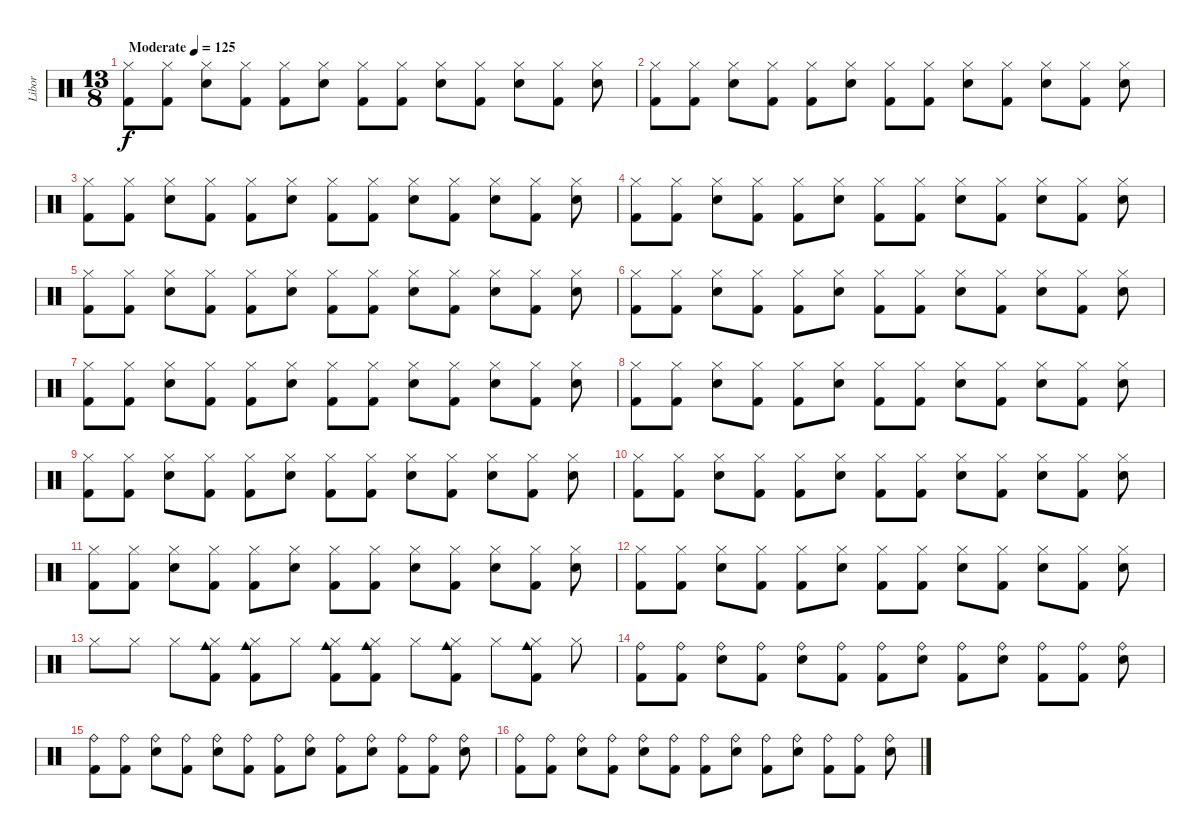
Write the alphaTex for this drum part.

\track ("Libor" "Libor") {instrument percussion}
\staff {score}
\articulation defaults
\ts (13 8)
\tempo (125 "Moderate")
\clef neutral
\ks c
("Hi-Hat (closed)" "Kick (hit) 2").8{dy f} ("Hi-Hat (closed)" "Kick (hit) 2").8 ("Hi-Hat (closed)" "Snare (hit) 2").8 ("Hi-Hat (closed)" "Kick (hit) 2").8 ("Hi-Hat (closed)" "Kick (hit) 2").8 ("Hi-Hat (closed)" "Snare (hit) 2").8 ("Hi-Hat (closed)" "Kick (hit) 2").8 ("Hi-Hat (closed)" "Kick (hit) 2").8 ("Hi-Hat (closed)" "Snare (hit) 2").8 ("Hi-Hat (closed)" "Kick (hit) 2").8 ("Hi-Hat (closed)" "Snare (hit) 2").8 ("Hi-Hat (closed)" "Kick (hit) 2").8 ("Hi-Hat (closed)" "Snare (hit) 2").8 |
("Hi-Hat (closed)" "Kick (hit) 2").8 ("Hi-Hat (closed)" "Kick (hit) 2").8 ("Hi-Hat (closed)" "Snare (hit) 2").8 ("Hi-Hat (closed)" "Kick (hit) 2").8 ("Hi-Hat (closed)" "Kick (hit) 2").8 ("Hi-Hat (closed)" "Snare (hit) 2").8 ("Hi-Hat (closed)" "Kick (hit) 2").8 ("Hi-Hat (closed)" "Kick (hit) 2").8 ("Hi-Hat (closed)" "Snare (hit) 2").8 ("Hi-Hat (closed)" "Kick (hit) 2").8 ("Hi-Hat (closed)" "Snare (hit) 2").8 ("Hi-Hat (closed)" "Kick (hit) 2").8 ("Hi-Hat (closed)" "Snare (hit) 2").8 |
("Hi-Hat (closed)" "Kick (hit) 2").8 ("Hi-Hat (closed)" "Kick (hit) 2").8 ("Hi-Hat (closed)" "Snare (hit) 2").8 ("Hi-Hat (closed)" "Kick (hit) 2").8 ("Hi-Hat (closed)" "Kick (hit) 2").8 ("Hi-Hat (closed)" "Snare (hit) 2").8 ("Hi-Hat (closed)" "Kick (hit) 2").8 ("Hi-Hat (closed)" "Kick (hit) 2").8 ("Hi-Hat (closed)" "Snare (hit) 2").8 ("Hi-Hat (closed)" "Kick (hit) 2").8 ("Hi-Hat (closed)" "Snare (hit) 2").8 ("Hi-Hat (closed)" "Kick (hit) 2").8 ("Hi-Hat (closed)" "Snare (hit) 2").8 |
("Hi-Hat (closed)" "Kick (hit) 2").8 ("Hi-Hat (closed)" "Kick (hit) 2").8 ("Hi-Hat (closed)" "Snare (hit) 2").8 ("Hi-Hat (closed)" "Kick (hit) 2").8 ("Hi-Hat (closed)" "Kick (hit) 2").8 ("Hi-Hat (closed)" "Snare (hit) 2").8 ("Hi-Hat (closed)" "Kick (hit) 2").8 ("Hi-Hat (closed)" "Kick (hit) 2").8 ("Hi-Hat (closed)" "Snare (hit) 2").8 ("Hi-Hat (closed)" "Kick (hit) 2").8 ("Hi-Hat (closed)" "Snare (hit) 2").8 ("Hi-Hat (closed)" "Kick (hit) 2").8 ("Hi-Hat (closed)" "Snare (hit) 2").8 |
("Hi-Hat (closed)" "Kick (hit) 2").8 ("Hi-Hat (closed)" "Kick (hit) 2").8 ("Hi-Hat (closed)" "Snare (hit) 2").8 ("Hi-Hat (closed)" "Kick (hit) 2").8 ("Hi-Hat (closed)" "Kick (hit) 2").8 ("Hi-Hat (closed)" "Snare (hit) 2").8 ("Hi-Hat (closed)" "Kick (hit) 2").8 ("Hi-Hat (closed)" "Kick (hit) 2").8 ("Hi-Hat (closed)" "Snare (hit) 2").8 ("Hi-Hat (closed)" "Kick (hit) 2").8 ("Hi-Hat (closed)" "Snare (hit) 2").8 ("Hi-Hat (closed)" "Kick (hit) 2").8 ("Hi-Hat (closed)" "Snare (hit) 2").8 |
("Hi-Hat (closed)" "Kick (hit) 2").8 ("Hi-Hat (closed)" "Kick (hit) 2").8 ("Hi-Hat (closed)" "Snare (hit) 2").8 ("Hi-Hat (closed)" "Kick (hit) 2").8 ("Hi-Hat (closed)" "Kick (hit) 2").8 ("Hi-Hat (closed)" "Snare (hit) 2").8 ("Hi-Hat (closed)" "Kick (hit) 2").8 ("Hi-Hat (closed)" "Kick (hit) 2").8 ("Hi-Hat (closed)" "Snare (hit) 2").8 ("Hi-Hat (closed)" "Kick (hit) 2").8 ("Hi-Hat (closed)" "Snare (hit) 2").8 ("Hi-Hat (closed)" "Kick (hit) 2").8 ("Hi-Hat (closed)" "Snare (hit) 2").8 |
("Hi-Hat (closed)" "Kick (hit) 2").8 ("Hi-Hat (closed)" "Kick (hit) 2").8 ("Hi-Hat (closed)" "Snare (hit) 2").8 ("Hi-Hat (closed)" "Kick (hit) 2").8 ("Hi-Hat (closed)" "Kick (hit) 2").8 ("Hi-Hat (closed)" "Snare (hit) 2").8 ("Hi-Hat (closed)" "Kick (hit) 2").8 ("Hi-Hat (closed)" "Kick (hit) 2").8 ("Hi-Hat (closed)" "Snare (hit) 2").8 ("Hi-Hat (closed)" "Kick (hit) 2").8 ("Hi-Hat (closed)" "Snare (hit) 2").8 ("Hi-Hat (closed)" "Kick (hit) 2").8 ("Hi-Hat (closed)" "Snare (hit) 2").8 |
("Hi-Hat (closed)" "Kick (hit) 2").8 ("Hi-Hat (closed)" "Kick (hit) 2").8 ("Hi-Hat (closed)" "Snare (hit) 2").8 ("Hi-Hat (closed)" "Kick (hit) 2").8 ("Hi-Hat (closed)" "Kick (hit) 2").8 ("Hi-Hat (closed)" "Snare (hit) 2").8 ("Hi-Hat (closed)" "Kick (hit) 2").8 ("Hi-Hat (closed)" "Kick (hit) 2").8 ("Hi-Hat (closed)" "Snare (hit) 2").8 ("Hi-Hat (closed)" "Kick (hit) 2").8 ("Hi-Hat (closed)" "Snare (hit) 2").8 ("Hi-Hat (closed)" "Kick (hit) 2").8 ("Hi-Hat (closed)" "Snare (hit) 2").8 |
("Hi-Hat (closed)" "Kick (hit) 2").8 ("Hi-Hat (closed)" "Kick (hit) 2").8 ("Hi-Hat (closed)" "Snare (hit) 2").8 ("Hi-Hat (closed)" "Kick (hit) 2").8 ("Hi-Hat (closed)" "Kick (hit) 2").8 ("Hi-Hat (closed)" "Snare (hit) 2").8 ("Hi-Hat (closed)" "Kick (hit) 2").8 ("Hi-Hat (closed)" "Kick (hit) 2").8 ("Hi-Hat (closed)" "Snare (hit) 2").8 ("Hi-Hat (closed)" "Kick (hit) 2").8 ("Hi-Hat (closed)" "Snare (hit) 2").8 ("Hi-Hat (closed)" "Kick (hit) 2").8 ("Hi-Hat (closed)" "Snare (hit) 2").8 |
("Hi-Hat (closed)" "Kick (hit) 2").8 ("Hi-Hat (closed)" "Kick (hit) 2").8 ("Hi-Hat (closed)" "Snare (hit) 2").8 ("Hi-Hat (closed)" "Kick (hit) 2").8 ("Hi-Hat (closed)" "Kick (hit) 2").8 ("Hi-Hat (closed)" "Snare (hit) 2").8 ("Hi-Hat (closed)" "Kick (hit) 2").8 ("Hi-Hat (closed)" "Kick (hit) 2").8 ("Hi-Hat (closed)" "Snare (hit) 2").8 ("Hi-Hat (closed)" "Kick (hit) 2").8 ("Hi-Hat (closed)" "Snare (hit) 2").8 ("Hi-Hat (closed)" "Kick (hit) 2").8 ("Hi-Hat (closed)" "Snare (hit) 2").8 |
("Hi-Hat (closed)" "Kick (hit) 2").8 ("Hi-Hat (closed)" "Kick (hit) 2").8 ("Hi-Hat (closed)" "Snare (hit) 2").8 ("Hi-Hat (closed)" "Kick (hit) 2").8 ("Hi-Hat (closed)" "Kick (hit) 2").8 ("Hi-Hat (closed)" "Snare (hit) 2").8 ("Hi-Hat (closed)" "Kick (hit) 2").8 ("Hi-Hat (closed)" "Kick (hit) 2").8 ("Hi-Hat (closed)" "Snare (hit) 2").8 ("Hi-Hat (closed)" "Kick (hit) 2").8 ("Hi-Hat (closed)" "Snare (hit) 2").8 ("Hi-Hat (closed)" "Kick (hit) 2").8 ("Hi-Hat (closed)" "Snare (hit) 2").8 |
("Hi-Hat (closed)" "Kick (hit) 2").8 ("Hi-Hat (closed)" "Kick (hit) 2").8 ("Hi-Hat (closed)" "Snare (hit) 2").8 ("Hi-Hat (closed)" "Kick (hit) 2").8 ("Hi-Hat (closed)" "Kick (hit) 2").8 ("Hi-Hat (closed)" "Snare (hit) 2").8 ("Hi-Hat (closed)" "Kick (hit) 2").8 ("Hi-Hat (closed)" "Kick (hit) 2").8 ("Hi-Hat (closed)" "Snare (hit) 2").8 ("Hi-Hat (closed)" "Kick (hit) 2").8 ("Hi-Hat (closed)" "Snare (hit) 2").8 ("Hi-Hat (closed)" "Kick (hit) 2").8 ("Hi-Hat (closed)" "Snare (hit) 2").8 |
"Hi-Hat (closed)".8 "Hi-Hat (closed)".8 "Hi-Hat (closed)".8 ("Cowbell medium (hit)" "Hi-Hat (closed)" "Kick (hit) 2").8 ("Cowbell medium (hit)" "Hi-Hat (closed)" "Kick (hit) 2").8 "Hi-Hat (closed)".8 ("Cowbell medium (hit)" "Hi-Hat (closed)" "Kick (hit) 2").8 ("Cowbell medium (hit)" "Hi-Hat (closed)" "Kick (hit) 2").8 "Hi-Hat (closed)".8 ("Cowbell medium (hit)" "Hi-Hat (closed)" "Kick (hit) 2").8 "Hi-Hat (closed)".8 ("Cowbell medium (hit)" "Hi-Hat (closed)" "Kick (hit) 2").8 "Hi-Hat (closed)".8 |
("Ride (bell)" "Kick (hit) 2").8 ("Ride (bell)" "Kick (hit) 2").8 ("Ride (bell)" "Snare (hit) 2").8 ("Ride (bell)" "Kick (hit) 2").8 ("Ride (bell)" "Snare (hit) 2").8 ("Ride (bell)" "Kick (hit) 2").8 ("Ride (bell)" "Kick (hit) 2").8 ("Ride (bell)" "Snare (hit) 2").8 ("Ride (bell)" "Kick (hit) 2").8 ("Ride (bell)" "Snare (hit) 2").8 ("Ride (bell)" "Kick (hit) 2").8 ("Ride (bell)" "Kick (hit) 2").8 ("Ride (bell)" "Snare (hit) 2").8 |
("Ride (bell)" "Kick (hit) 2").8 ("Ride (bell)" "Kick (hit) 2").8 ("Ride (bell)" "Snare (hit) 2").8 ("Ride (bell)" "Kick (hit) 2").8 ("Ride (bell)" "Snare (hit) 2").8 ("Ride (bell)" "Kick (hit) 2").8 ("Ride (bell)" "Kick (hit) 2").8 ("Ride (bell)" "Snare (hit) 2").8 ("Ride (bell)" "Kick (hit) 2").8 ("Ride (bell)" "Snare (hit) 2").8 ("Ride (bell)" "Kick (hit) 2").8 ("Ride (bell)" "Kick (hit) 2").8 ("Ride (bell)" "Snare (hit) 2").8 |
("Ride (bell)" "Kick (hit) 2").8 ("Ride (bell)" "Kick (hit) 2").8 ("Ride (bell)" "Snare (hit) 2").8 ("Ride (bell)" "Kick (hit) 2").8 ("Ride (bell)" "Snare (hit) 2").8 ("Ride (bell)" "Kick (hit) 2").8 ("Ride (bell)" "Kick (hit) 2").8 ("Ride (bell)" "Snare (hit) 2").8 ("Ride (bell)" "Kick (hit) 2").8 ("Ride (bell)" "Snare (hit) 2").8 ("Ride (bell)" "Kick (hit) 2").8 ("Ride (bell)" "Kick (hit) 2").8 ("Ride (bell)" "Snare (hit) 2").8
